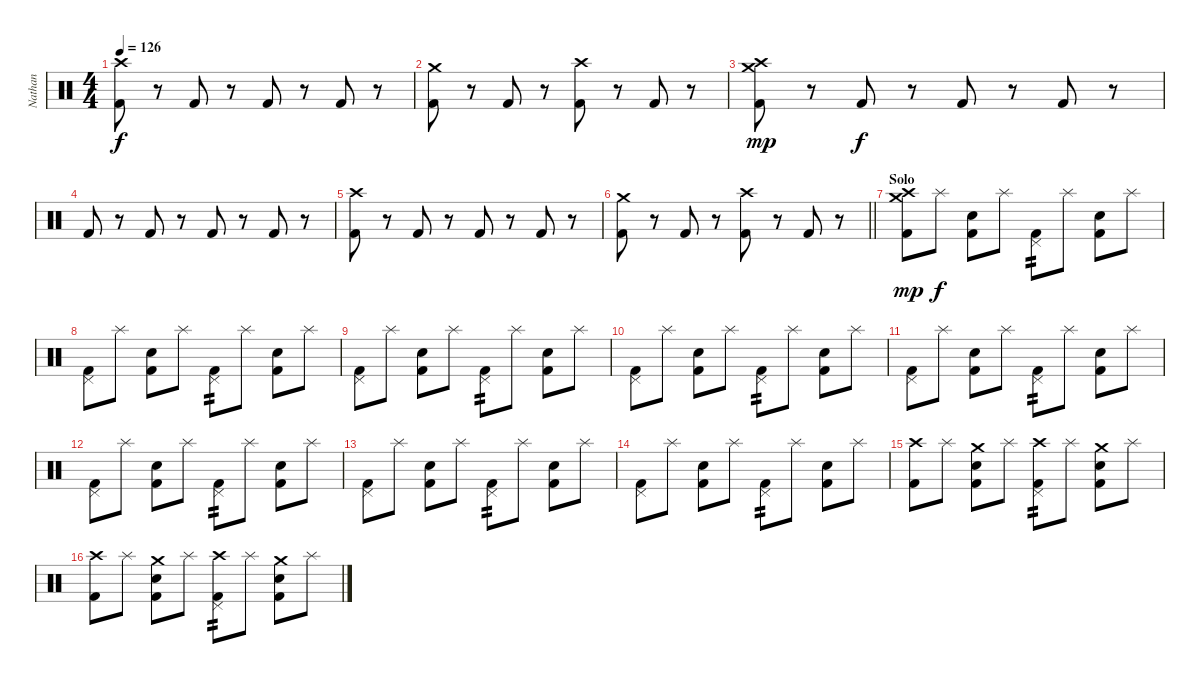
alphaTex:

\track ("Nathan" "Nathan") {instrument percussion}
\staff {score}
\articulation defaults
\ts (4 4)
\tempo 126
\clef neutral
\ks c
("Kick (hit) 2" "Crash high (hit)").8{dy f} r.8 "Kick (hit) 2".8 r.8 "Kick (hit) 2".8 r.8 "Kick (hit) 2".8 r.8 |
("Kick (hit) 2" "Crash medium (hit)").8 r.8 "Kick (hit) 2".8 r.8 ("Kick (hit) 2" "Crash high (hit)").8 r.8 "Kick (hit) 2".8 r.8 |
("Kick (hit) 2" "Crash medium (hit)" "Crash high (hit)").8{dy mp} r.8 "Kick (hit) 2".8{dy f} r.8 "Kick (hit) 2".8 r.8 "Kick (hit) 2".8 r.8 |
"Kick (hit) 2".8 r.8 "Kick (hit) 2".8 r.8 "Kick (hit) 2".8 r.8 "Kick (hit) 2".8 r.8 |
("Kick (hit) 2" "Crash high (hit)").8 r.8 "Kick (hit) 2".8 r.8 "Kick (hit) 2".8 r.8 "Kick (hit) 2".8 r.8 |
\barLineRight lightlight
("Kick (hit) 2" "Crash medium (hit)").8 r.8 "Kick (hit) 2".8 r.8 ("Kick (hit) 2" "Crash high (hit)").8 r.8 "Kick (hit) 2".8 r.8 |
\section ("" "Solo")
("Kick (hit) 2" "Crash medium (hit)" "Crash high (hit)").8{dy mp} "Splash (hit)".8{dy f} ("Kick (hit) 2" "Snare (hit) 2").8 "Splash (hit)".8 ("Kick (hit) 2" "Pedal Hi-Hat (hit)").8{tp 2} "Splash (hit)".8 ("Kick (hit) 2" "Snare (hit) 2").8 "Splash (hit)".8 |
("Kick (hit) 2" "Pedal Hi-Hat (hit)").8 "Splash (hit)".8 ("Kick (hit) 2" "Snare (hit) 2").8 "Splash (hit)".8 ("Kick (hit) 2" "Pedal Hi-Hat (hit)").8{tp 2} "Splash (hit)".8 ("Kick (hit) 2" "Snare (hit) 2").8 "Splash (hit)".8 |
("Kick (hit) 2" "Pedal Hi-Hat (hit)").8 "Splash (hit)".8 ("Kick (hit) 2" "Snare (hit) 2").8 "Splash (hit)".8 ("Kick (hit) 2" "Pedal Hi-Hat (hit)").8{tp 2} "Splash (hit)".8 ("Kick (hit) 2" "Snare (hit) 2").8 "Splash (hit)".8 |
("Kick (hit) 2" "Pedal Hi-Hat (hit)").8 "Splash (hit)".8 ("Kick (hit) 2" "Snare (hit) 2").8 "Splash (hit)".8 ("Kick (hit) 2" "Pedal Hi-Hat (hit)").8{tp 2} "Splash (hit)".8 ("Kick (hit) 2" "Snare (hit) 2").8 "Splash (hit)".8 |
("Kick (hit) 2" "Pedal Hi-Hat (hit)").8 "Splash (hit)".8 ("Kick (hit) 2" "Snare (hit) 2").8 "Splash (hit)".8 ("Kick (hit) 2" "Pedal Hi-Hat (hit)").8{tp 2} "Splash (hit)".8 ("Kick (hit) 2" "Snare (hit) 2").8 "Splash (hit)".8 |
("Kick (hit) 2" "Pedal Hi-Hat (hit)").8 "Splash (hit)".8 ("Kick (hit) 2" "Snare (hit) 2").8 "Splash (hit)".8 ("Kick (hit) 2" "Pedal Hi-Hat (hit)").8{tp 2} "Splash (hit)".8 ("Kick (hit) 2" "Snare (hit) 2").8 "Splash (hit)".8 |
("Kick (hit) 2" "Pedal Hi-Hat (hit)").8 "Splash (hit)".8 ("Kick (hit) 2" "Snare (hit) 2").8 "Splash (hit)".8 ("Kick (hit) 2" "Pedal Hi-Hat (hit)").8{tp 2} "Splash (hit)".8 ("Kick (hit) 2" "Snare (hit) 2").8 "Splash (hit)".8 |
("Kick (hit) 2" "Pedal Hi-Hat (hit)").8 "Splash (hit)".8 ("Kick (hit) 2" "Snare (hit) 2").8 "Splash (hit)".8 ("Kick (hit) 2" "Pedal Hi-Hat (hit)").8{tp 2} "Splash (hit)".8 ("Kick (hit) 2" "Snare (hit) 2").8 "Splash (hit)".8 |
("Kick (hit) 2" "Crash high (hit)").8 "Splash (hit)".8 ("Kick (hit) 2" "Snare (hit) 2" "Crash medium (hit)").8 "Splash (hit)".8 ("Kick (hit) 2" "Pedal Hi-Hat (hit)" "Crash high (hit)").8{tp 2} "Splash (hit)".8 ("Kick (hit) 2" "Snare (hit) 2" "Crash medium (hit)").8 "Splash (hit)".8 |
("Kick (hit) 2" "Crash high (hit)").8 "Splash (hit)".8 ("Kick (hit) 2" "Snare (hit) 2" "Crash medium (hit)").8 "Splash (hit)".8 ("Kick (hit) 2" "Pedal Hi-Hat (hit)" "Crash high (hit)").8{tp 2} "Splash (hit)".8 ("Kick (hit) 2" "Snare (hit) 2" "Crash medium (hit)").8 "Splash (hit)".8
